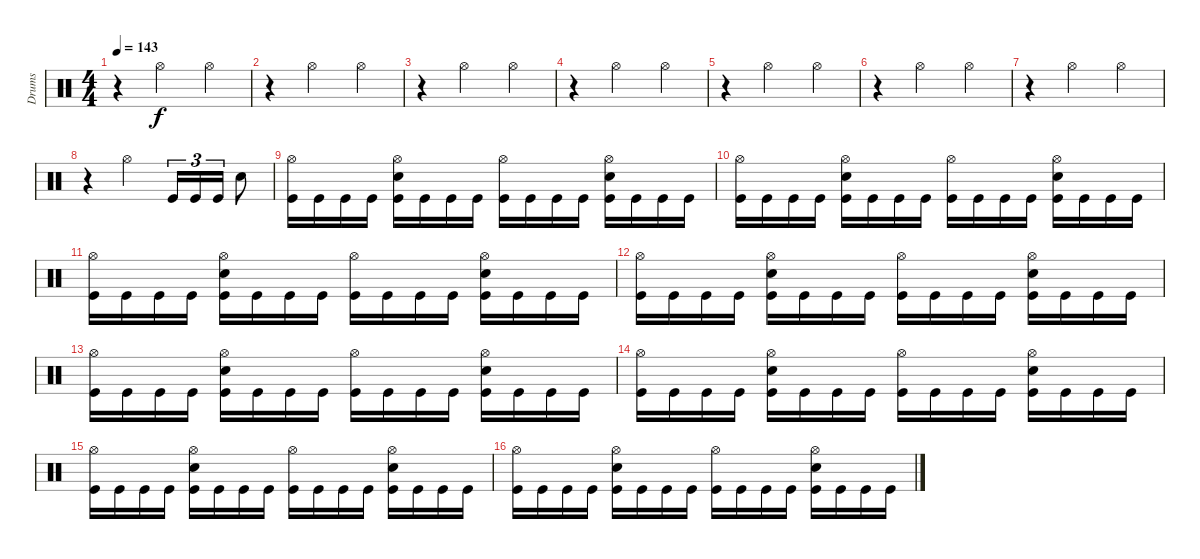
\track ("Drums" "Drums") {instrument percussion}
\staff {score}
\articulation defaults
\ts (4 4)
\tempo 143
\clef neutral
\ks c
r.4{dy f} "Hi-Hat (open)".2 "Hi-Hat (open)".4 |
r.4 "Hi-Hat (open)".2 "Hi-Hat (open)".4 |
r.4 "Hi-Hat (open)".2 "Hi-Hat (open)".4 |
r.4 "Hi-Hat (open)".2 "Hi-Hat (open)".4 |
r.4 "Hi-Hat (open)".2 "Hi-Hat (open)".4 |
r.4 "Hi-Hat (open)".2 "Hi-Hat (open)".4 |
r.4 "Hi-Hat (open)".2 "Hi-Hat (open)".4 |
r.4 "Hi-Hat (open)".2 "Kick (hit)".16{tu (3 2)} "Kick (hit)".16{tu (3 2)} "Kick (hit)".16{tu (3 2)} "Snare (hit) 2".8 |
("Hi-Hat (open)" "Kick (hit)").16 "Kick (hit)".16 "Kick (hit)".16 "Kick (hit)".16 ("Hi-Hat (open)" "Snare (hit) 2" "Kick (hit)").16 "Kick (hit)".16 "Kick (hit)".16 "Kick (hit)".16 ("Hi-Hat (open)" "Kick (hit)").16 "Kick (hit)".16 "Kick (hit)".16 "Kick (hit)".16 ("Hi-Hat (open)" "Snare (hit) 2" "Kick (hit)").16 "Kick (hit)".16 "Kick (hit)".16 "Kick (hit)".16 |
("Hi-Hat (open)" "Kick (hit)").16 "Kick (hit)".16 "Kick (hit)".16 "Kick (hit)".16 ("Hi-Hat (open)" "Snare (hit) 2" "Kick (hit)").16 "Kick (hit)".16 "Kick (hit)".16 "Kick (hit)".16 ("Hi-Hat (open)" "Kick (hit)").16 "Kick (hit)".16 "Kick (hit)".16 "Kick (hit)".16 ("Hi-Hat (open)" "Snare (hit) 2" "Kick (hit)").16 "Kick (hit)".16 "Kick (hit)".16 "Kick (hit)".16 |
("Hi-Hat (open)" "Kick (hit)").16 "Kick (hit)".16 "Kick (hit)".16 "Kick (hit)".16 ("Hi-Hat (open)" "Snare (hit) 2" "Kick (hit)").16 "Kick (hit)".16 "Kick (hit)".16 "Kick (hit)".16 ("Hi-Hat (open)" "Kick (hit)").16 "Kick (hit)".16 "Kick (hit)".16 "Kick (hit)".16 ("Hi-Hat (open)" "Snare (hit) 2" "Kick (hit)").16 "Kick (hit)".16 "Kick (hit)".16 "Kick (hit)".16 |
("Hi-Hat (open)" "Kick (hit)").16 "Kick (hit)".16 "Kick (hit)".16 "Kick (hit)".16 ("Hi-Hat (open)" "Snare (hit) 2" "Kick (hit)").16 "Kick (hit)".16 "Kick (hit)".16 "Kick (hit)".16 ("Hi-Hat (open)" "Kick (hit)").16 "Kick (hit)".16 "Kick (hit)".16 "Kick (hit)".16 ("Hi-Hat (open)" "Snare (hit) 2" "Kick (hit)").16 "Kick (hit)".16 "Kick (hit)".16 "Kick (hit)".16 |
("Hi-Hat (open)" "Kick (hit)").16 "Kick (hit)".16 "Kick (hit)".16 "Kick (hit)".16 ("Hi-Hat (open)" "Snare (hit) 2" "Kick (hit)").16 "Kick (hit)".16 "Kick (hit)".16 "Kick (hit)".16 ("Hi-Hat (open)" "Kick (hit)").16 "Kick (hit)".16 "Kick (hit)".16 "Kick (hit)".16 ("Hi-Hat (open)" "Snare (hit) 2" "Kick (hit)").16 "Kick (hit)".16 "Kick (hit)".16 "Kick (hit)".16 |
("Hi-Hat (open)" "Kick (hit)").16 "Kick (hit)".16 "Kick (hit)".16 "Kick (hit)".16 ("Hi-Hat (open)" "Snare (hit) 2" "Kick (hit)").16 "Kick (hit)".16 "Kick (hit)".16 "Kick (hit)".16 ("Hi-Hat (open)" "Kick (hit)").16 "Kick (hit)".16 "Kick (hit)".16 "Kick (hit)".16 ("Hi-Hat (open)" "Snare (hit) 2" "Kick (hit)").16 "Kick (hit)".16 "Kick (hit)".16 "Kick (hit)".16 |
("Hi-Hat (open)" "Kick (hit)").16 "Kick (hit)".16 "Kick (hit)".16 "Kick (hit)".16 ("Hi-Hat (open)" "Snare (hit) 2" "Kick (hit)").16 "Kick (hit)".16 "Kick (hit)".16 "Kick (hit)".16 ("Hi-Hat (open)" "Kick (hit)").16 "Kick (hit)".16 "Kick (hit)".16 "Kick (hit)".16 ("Hi-Hat (open)" "Snare (hit) 2" "Kick (hit)").16 "Kick (hit)".16 "Kick (hit)".16 "Kick (hit)".16 |
("Hi-Hat (open)" "Kick (hit)").16 "Kick (hit)".16 "Kick (hit)".16 "Kick (hit)".16 ("Hi-Hat (open)" "Snare (hit) 2" "Kick (hit)").16 "Kick (hit)".16 "Kick (hit)".16 "Kick (hit)".16 ("Hi-Hat (open)" "Kick (hit)").16 "Kick (hit)".16 "Kick (hit)".16 "Kick (hit)".16 ("Hi-Hat (open)" "Snare (hit) 2" "Kick (hit)").16 "Kick (hit)".16 "Kick (hit)".16 "Kick (hit)".16
